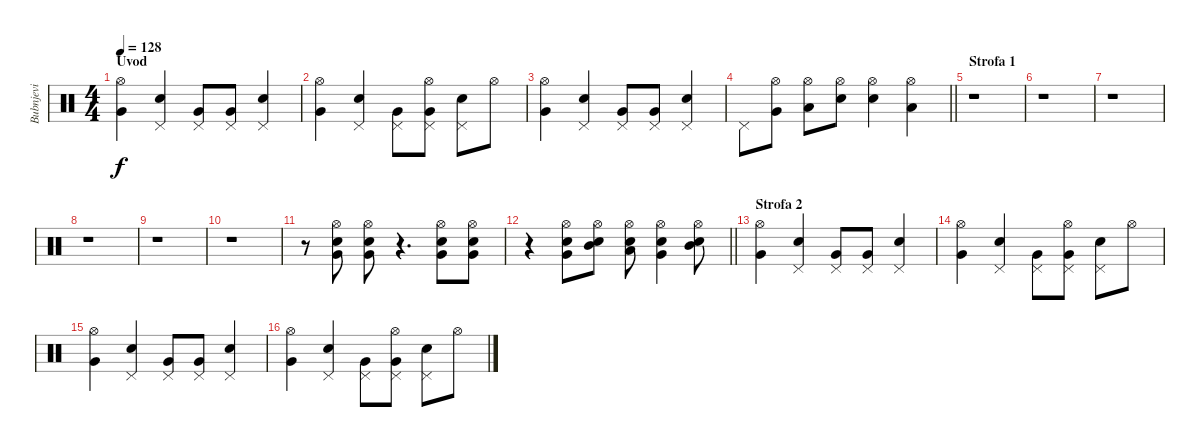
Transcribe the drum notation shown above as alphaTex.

\track ("Bubnjevi" "Bubnjevi") {instrument percussion}
\staff {score}
\articulation defaults
\ts (4 4)
\section ("" "Uvod")
\tempo 128
\clef neutral
\ks c
("Hi-Hat (open)" "Very Low Tom (hit)").4{dy f} ("Pedal Hi-Hat (hit)" "Electric Snare (hit)").4 ("Pedal Hi-Hat (hit)" "Very Low Tom (hit)").8 ("Pedal Hi-Hat (hit)" "Very Low Tom (hit)").8 ("Pedal Hi-Hat (hit)" "Electric Snare (hit)").4 |
("Hi-Hat (open)" "Very Low Tom (hit)").4 ("Pedal Hi-Hat (hit)" "Electric Snare (hit)").4 ("Pedal Hi-Hat (hit)" "Very Low Tom (hit)").8 ("Pedal Hi-Hat (hit)" "Hi-Hat (open)" "Very Low Tom (hit)").8 ("Pedal Hi-Hat (hit)" "Electric Snare (hit)").8 "Hi-Hat (open)".8 |
("Hi-Hat (open)" "Very Low Tom (hit)").4 ("Pedal Hi-Hat (hit)" "Electric Snare (hit)").4 ("Pedal Hi-Hat (hit)" "Very Low Tom (hit)").8 ("Pedal Hi-Hat (hit)" "Very Low Tom (hit)").8 ("Pedal Hi-Hat (hit)" "Electric Snare (hit)").4 |
\barLineRight lightlight "Pedal Hi-Hat (hit)".8
("Hi-Hat (open)" "Very Low Tom (hit)").8 ("Hi-Hat (open)" "Low Tom (hit)").8 ("Hi-Hat (open)" "Electric Snare (hit)").8 ("Hi-Hat (open)" "Electric Snare (hit)").4 ("Hi-Hat (open)" "Low Tom (hit)").4 |
\section ("" "Strofa 1")
r.1 |
r.1 |
r.1 |
r.1 |
r.1 |
r.1 |
r.8 ("Hi-Hat (open)" "Electric Snare (hit)" "Very Low Tom (hit)").8 ("Hi-Hat (open)" "Electric Snare (hit)" "Very Low Tom (hit)").8 r.4{d} ("Hi-Hat (open)" "Electric Snare (hit)" "Very Low Tom (hit)").8 ("Hi-Hat (open)" "Electric Snare (hit)" "Very Low Tom (hit)").8 |
\barLineRight lightlight
r.4 ("Hi-Hat (open)" "Electric Snare (hit)" "Very Low Tom (hit)").8 ("Hi-Hat (open)" "Electric Snare (hit)" "Mid Tom (hit)").8 ("Hi-Hat (open)" "Electric Snare (hit)" "Low Tom (hit)").8 ("Hi-Hat (open)" "Electric Snare (hit)" "Very Low Tom (hit)").4 ("Hi-Hat (open)" "Electric Snare (hit)" "Mid Tom (hit)").8 |
\section ("" "Strofa 2")
("Hi-Hat (open)" "Very Low Tom (hit)").4 ("Pedal Hi-Hat (hit)" "Electric Snare (hit)").4 ("Pedal Hi-Hat (hit)" "Very Low Tom (hit)").8 ("Pedal Hi-Hat (hit)" "Very Low Tom (hit)").8 ("Pedal Hi-Hat (hit)" "Electric Snare (hit)").4 |
("Hi-Hat (open)" "Very Low Tom (hit)").4 ("Pedal Hi-Hat (hit)" "Electric Snare (hit)").4 ("Pedal Hi-Hat (hit)" "Very Low Tom (hit)").8 ("Pedal Hi-Hat (hit)" "Hi-Hat (open)" "Very Low Tom (hit)").8 ("Pedal Hi-Hat (hit)" "Electric Snare (hit)").8 "Hi-Hat (open)".8 |
("Hi-Hat (open)" "Very Low Tom (hit)").4 ("Pedal Hi-Hat (hit)" "Electric Snare (hit)").4 ("Pedal Hi-Hat (hit)" "Very Low Tom (hit)").8 ("Pedal Hi-Hat (hit)" "Very Low Tom (hit)").8 ("Pedal Hi-Hat (hit)" "Electric Snare (hit)").4 |
("Hi-Hat (open)" "Very Low Tom (hit)").4 ("Pedal Hi-Hat (hit)" "Electric Snare (hit)").4 ("Pedal Hi-Hat (hit)" "Very Low Tom (hit)").8 ("Pedal Hi-Hat (hit)" "Hi-Hat (open)" "Very Low Tom (hit)").8 ("Pedal Hi-Hat (hit)" "Electric Snare (hit)").8 "Hi-Hat (open)".8
